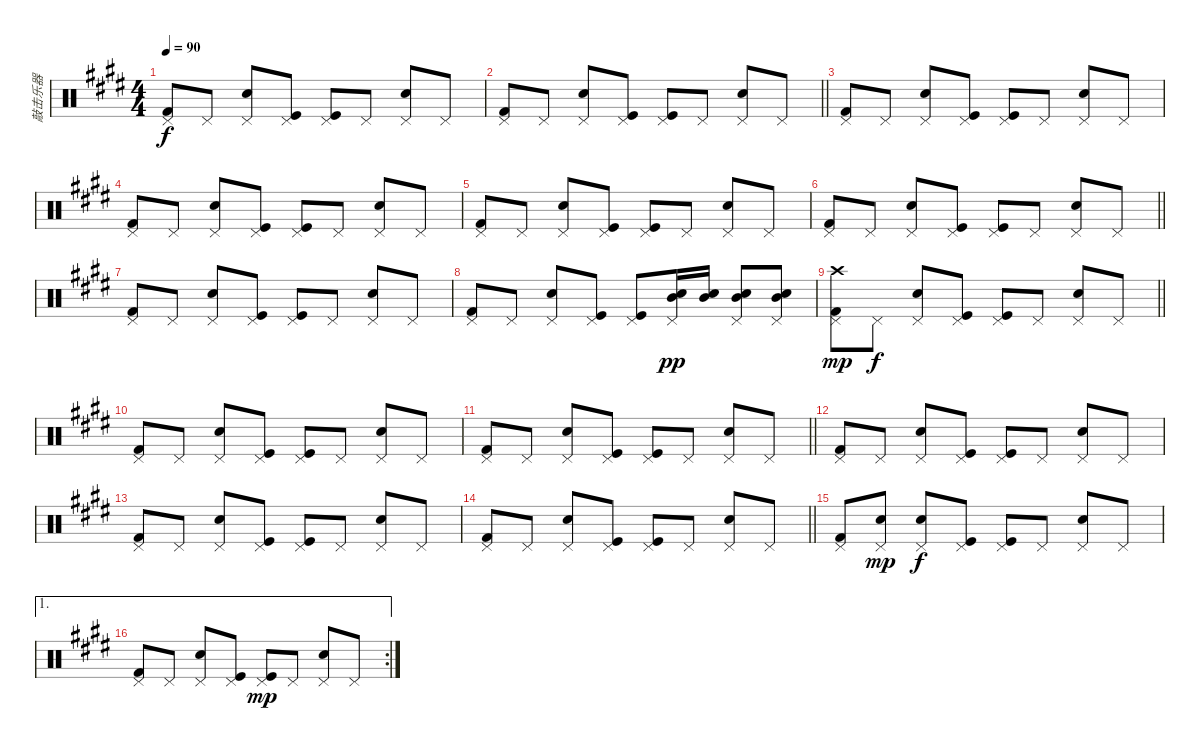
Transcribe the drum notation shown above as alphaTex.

\track ("敲击乐器" "敲击乐器") {solo instrument percussion}
\staff {score}
\articulation defaults
\ts (4 4)
\tempo 90
\clef neutral
\ks e
("Kick (hit) 2" "Pedal Hi-Hat (hit)").8{dy f} "Pedal Hi-Hat (hit)".8 ("Pedal Hi-Hat (hit)" "Snare (hit) 2").8 ("Pedal Hi-Hat (hit)" "Kick (hit)").8 ("Kick (hit)" "Pedal Hi-Hat (hit)").8 "Pedal Hi-Hat (hit)".8 ("Snare (hit) 2" "Pedal Hi-Hat (hit)").8 "Pedal Hi-Hat (hit)".8 |
\barLineRight lightlight
("Kick (hit) 2" "Pedal Hi-Hat (hit)").8 "Pedal Hi-Hat (hit)".8 ("Pedal Hi-Hat (hit)" "Snare (hit) 2").8 ("Pedal Hi-Hat (hit)" "Kick (hit)").8 ("Kick (hit)" "Pedal Hi-Hat (hit)").8 "Pedal Hi-Hat (hit)".8 ("Snare (hit) 2" "Pedal Hi-Hat (hit)").8 "Pedal Hi-Hat (hit)".8 |
("Kick (hit) 2" "Pedal Hi-Hat (hit)").8 "Pedal Hi-Hat (hit)".8 ("Pedal Hi-Hat (hit)" "Snare (hit) 2").8 ("Pedal Hi-Hat (hit)" "Kick (hit)").8 ("Kick (hit)" "Pedal Hi-Hat (hit)").8 "Pedal Hi-Hat (hit)".8 ("Snare (hit) 2" "Pedal Hi-Hat (hit)").8 "Pedal Hi-Hat (hit)".8 |
("Kick (hit) 2" "Pedal Hi-Hat (hit)").8 "Pedal Hi-Hat (hit)".8 ("Pedal Hi-Hat (hit)" "Snare (hit) 2").8 ("Pedal Hi-Hat (hit)" "Kick (hit)").8 ("Kick (hit)" "Pedal Hi-Hat (hit)").8 "Pedal Hi-Hat (hit)".8 ("Snare (hit) 2" "Pedal Hi-Hat (hit)").8 "Pedal Hi-Hat (hit)".8 |
("Kick (hit) 2" "Pedal Hi-Hat (hit)").8 "Pedal Hi-Hat (hit)".8 ("Pedal Hi-Hat (hit)" "Snare (hit) 2").8 ("Pedal Hi-Hat (hit)" "Kick (hit)").8 ("Kick (hit)" "Pedal Hi-Hat (hit)").8 "Pedal Hi-Hat (hit)".8 ("Snare (hit) 2" "Pedal Hi-Hat (hit)").8 "Pedal Hi-Hat (hit)".8 |
\barLineRight lightlight
("Kick (hit) 2" "Pedal Hi-Hat (hit)").8 "Pedal Hi-Hat (hit)".8 ("Pedal Hi-Hat (hit)" "Snare (hit) 2").8 ("Pedal Hi-Hat (hit)" "Kick (hit)").8 ("Kick (hit)" "Pedal Hi-Hat (hit)").8 "Pedal Hi-Hat (hit)".8 ("Snare (hit) 2" "Pedal Hi-Hat (hit)").8 "Pedal Hi-Hat (hit)".8 |
("Kick (hit) 2" "Pedal Hi-Hat (hit)").8 "Pedal Hi-Hat (hit)".8 ("Pedal Hi-Hat (hit)" "Snare (hit) 2").8 ("Pedal Hi-Hat (hit)" "Kick (hit)").8 ("Kick (hit)" "Pedal Hi-Hat (hit)").8 "Pedal Hi-Hat (hit)".8 ("Snare (hit) 2" "Pedal Hi-Hat (hit)").8 "Pedal Hi-Hat (hit)".8 |
("Kick (hit) 2" "Pedal Hi-Hat (hit)").8 "Pedal Hi-Hat (hit)".8 ("Pedal Hi-Hat (hit)" "Snare (hit) 2").8 ("Pedal Hi-Hat (hit)" "Kick (hit)").8 ("Kick (hit)" "Pedal Hi-Hat (hit)").8 ("Pedal Hi-Hat (hit)" "Snare (hit) 2" "Mid Tom (hit)").16{dy pp} ("Snare (hit) 2" "Mid Tom (hit)").16 ("Pedal Hi-Hat (hit)" "Snare (hit) 2" "Mid Tom (hit)").8 ("Snare (hit) 2" "Pedal Hi-Hat (hit)" "Mid Tom (hit)").8 |
\barLineRight lightlight
("Kick (hit) 2" "Pedal Hi-Hat (hit)" "Crash high (hit)").8{dy mp} "Pedal Hi-Hat (hit)".8{dy f} ("Pedal Hi-Hat (hit)" "Snare (hit) 2").8 ("Pedal Hi-Hat (hit)" "Kick (hit)").8 ("Kick (hit)" "Pedal Hi-Hat (hit)").8 "Pedal Hi-Hat (hit)".8 ("Snare (hit) 2" "Pedal Hi-Hat (hit)").8 "Pedal Hi-Hat (hit)".8 |
("Kick (hit) 2" "Pedal Hi-Hat (hit)").8 "Pedal Hi-Hat (hit)".8 ("Pedal Hi-Hat (hit)" "Snare (hit) 2").8 ("Pedal Hi-Hat (hit)" "Kick (hit)").8 ("Kick (hit)" "Pedal Hi-Hat (hit)").8 "Pedal Hi-Hat (hit)".8 ("Snare (hit) 2" "Pedal Hi-Hat (hit)").8 "Pedal Hi-Hat (hit)".8 |
\barLineRight lightlight
("Kick (hit) 2" "Pedal Hi-Hat (hit)").8 "Pedal Hi-Hat (hit)".8 ("Pedal Hi-Hat (hit)" "Snare (hit) 2").8 ("Pedal Hi-Hat (hit)" "Kick (hit)").8 ("Kick (hit)" "Pedal Hi-Hat (hit)").8 "Pedal Hi-Hat (hit)".8 ("Snare (hit) 2" "Pedal Hi-Hat (hit)").8 "Pedal Hi-Hat (hit)".8 |
("Kick (hit) 2" "Pedal Hi-Hat (hit)").8 "Pedal Hi-Hat (hit)".8 ("Pedal Hi-Hat (hit)" "Snare (hit) 2").8 ("Pedal Hi-Hat (hit)" "Kick (hit)").8 ("Kick (hit)" "Pedal Hi-Hat (hit)").8 "Pedal Hi-Hat (hit)".8 ("Snare (hit) 2" "Pedal Hi-Hat (hit)").8 "Pedal Hi-Hat (hit)".8 |
("Kick (hit) 2" "Pedal Hi-Hat (hit)").8 "Pedal Hi-Hat (hit)".8 ("Pedal Hi-Hat (hit)" "Snare (hit) 2").8 ("Pedal Hi-Hat (hit)" "Kick (hit)").8 ("Kick (hit)" "Pedal Hi-Hat (hit)").8 "Pedal Hi-Hat (hit)".8 ("Snare (hit) 2" "Pedal Hi-Hat (hit)").8 "Pedal Hi-Hat (hit)".8 |
\barLineRight lightlight
("Kick (hit) 2" "Pedal Hi-Hat (hit)").8 "Pedal Hi-Hat (hit)".8 ("Pedal Hi-Hat (hit)" "Snare (hit) 2").8 ("Pedal Hi-Hat (hit)" "Kick (hit)").8 ("Kick (hit)" "Pedal Hi-Hat (hit)").8 "Pedal Hi-Hat (hit)".8 ("Snare (hit) 2" "Pedal Hi-Hat (hit)").8 "Pedal Hi-Hat (hit)".8 |
("Kick (hit) 2" "Pedal Hi-Hat (hit)").8 ("Snare (hit) 2" "Pedal Hi-Hat (hit)").8{dy mp} ("Pedal Hi-Hat (hit)" "Snare (hit) 2").8{dy f} ("Pedal Hi-Hat (hit)" "Kick (hit)").8 ("Kick (hit)" "Pedal Hi-Hat (hit)").8 "Pedal Hi-Hat (hit)".8 ("Snare (hit) 2" "Pedal Hi-Hat (hit)").8 "Pedal Hi-Hat (hit)".8 |
\ae 1
\rc 2
("Kick (hit) 2" "Pedal Hi-Hat (hit)").8 "Pedal Hi-Hat (hit)".8 ("Pedal Hi-Hat (hit)" "Snare (hit) 2").8 ("Pedal Hi-Hat (hit)" "Kick (hit)").8 ("Pedal Hi-Hat (hit)" "Kick (hit)").8{dy mp} "Pedal Hi-Hat (hit)".8 ("Pedal Hi-Hat (hit)" "Snare (hit) 2").8 "Pedal Hi-Hat (hit)".8
